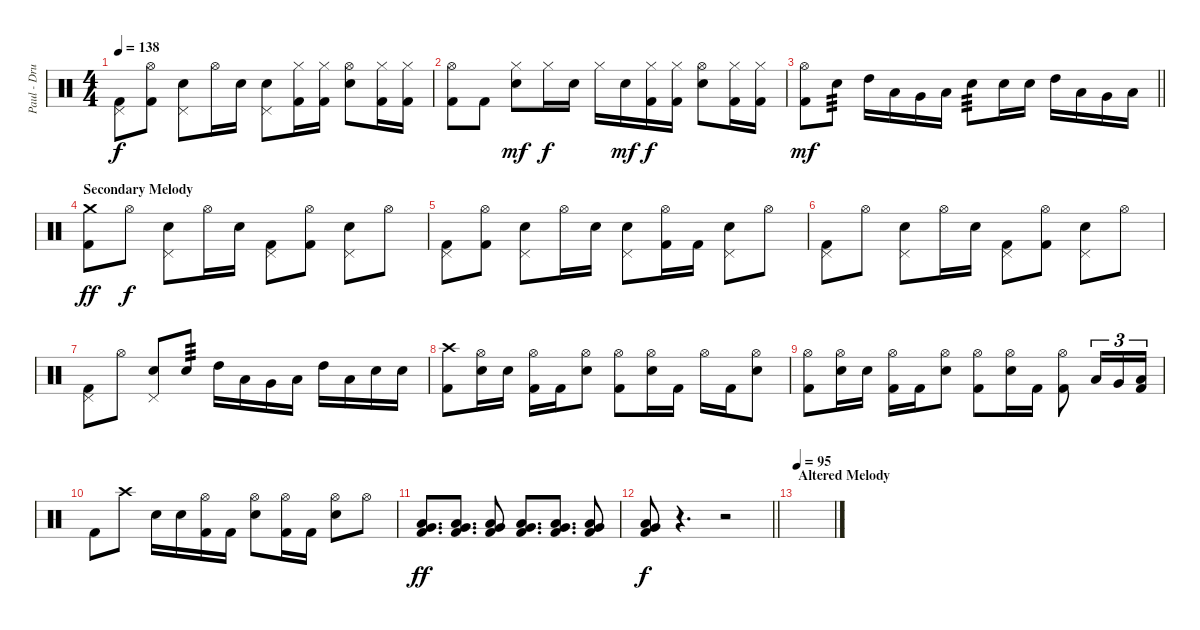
\track ("Paul - Drums" "Paul - Dru") {instrument percussion}
\staff {score}
\articulation defaults
\ts (4 4)
\tempo 138
\clef neutral
\ks c
("Pedal Hi-Hat (hit)" "Kick (hit) 2").8{dy f} ("Hi-Hat (open)" "Kick (hit) 2").8 ("Pedal Hi-Hat (hit)" "Electric Snare (hit)").8 "Hi-Hat (open)".16 "Electric Snare (hit)".16 ("Pedal Hi-Hat (hit)" "Electric Snare (hit)").8 ("Hi-Hat (closed)" "Kick (hit) 2").16 ("Hi-Hat (closed)" "Kick (hit) 2").16 ("Hi-Hat (open)" "Electric Snare (hit)").8 ("Hi-Hat (closed)" "Kick (hit) 2").16 ("Hi-Hat (closed)" "Kick (hit) 2").16 |
("Hi-Hat (open)" "Kick (hit) 2").8 "Kick (hit) 2".8 ("Hi-Hat (closed)" "Electric Snare (hit)").8{dy mf} "Hi-Hat (closed)".16{dy f} "Electric Snare (hit)".16 "Hi-Hat (closed)".16 "Electric Snare (hit)".16{dy mf} ("Hi-Hat (closed)" "Kick (hit) 2").16{dy f} ("Hi-Hat (closed)" "Kick (hit) 2").16 ("Hi-Hat (open)" "Electric Snare (hit)").8 ("Hi-Hat (closed)" "Kick (hit) 2").16 ("Hi-Hat (closed)" "Kick (hit) 2").16 |
\barLineRight lightlight
("Hi-Hat (open)" "Kick (hit) 2").8{dy mf} "Electric Snare (hit)".8{tp 3} "High Tom (hit)".16 "Low Tom (hit)".16 "Very Low Tom (hit)".16 "Low Floor Tom (hit)".16 "Electric Snare (hit)".8{tp 3} "Electric Snare (hit)".16 "Electric Snare (hit)".16 "High Tom (hit)".16 "Low Tom (hit)".16 "Very Low Tom (hit)".16 "Low Floor Tom (hit)".16 |
\section ("" "Secondary Melody")
("Crash medium (hit)" "Kick (hit) 2").8{dy ff} "Hi-Hat (open)".8{dy f} ("Pedal Hi-Hat (hit)" "Electric Snare (hit)").8 "Hi-Hat (open)".16 "Electric Snare (hit)".16 ("Pedal Hi-Hat (hit)" "Kick (hit) 2").8 ("Hi-Hat (open)" "Kick (hit) 2").8 ("Pedal Hi-Hat (hit)" "Electric Snare (hit)").8 "Hi-Hat (open)".8 |
("Pedal Hi-Hat (hit)" "Kick (hit) 2").8 ("Hi-Hat (open)" "Kick (hit) 2").8 ("Pedal Hi-Hat (hit)" "Electric Snare (hit)").8 "Hi-Hat (open)".16 "Electric Snare (hit)".16 ("Pedal Hi-Hat (hit)" "Electric Snare (hit)").8 ("Hi-Hat (open)" "Kick (hit) 2").16 "Kick (hit) 2".16 ("Pedal Hi-Hat (hit)" "Electric Snare (hit)").8 "Hi-Hat (open)".8 |
("Pedal Hi-Hat (hit)" "Kick (hit) 2").8 "Hi-Hat (open)".8 ("Pedal Hi-Hat (hit)" "Electric Snare (hit)").8 "Hi-Hat (open)".16 "Electric Snare (hit)".16 ("Pedal Hi-Hat (hit)" "Kick (hit) 2").8 ("Hi-Hat (open)" "Kick (hit) 2").8 ("Pedal Hi-Hat (hit)" "Electric Snare (hit)").8 "Hi-Hat (open)".8 |
("Pedal Hi-Hat (hit)" "Kick (hit) 2").8 "Hi-Hat (open)".8 ("Pedal Hi-Hat (hit)" "Electric Snare (hit)").8 "Electric Snare (hit)".8{tp 3} "High Tom (hit)".16 "Low Tom (hit)".16 "Very Low Tom (hit)".16 "Low Floor Tom (hit)".16 "High Tom (hit)".16 "Low Tom (hit)".16 "Electric Snare (hit)".16 "Electric Snare (hit)".16 |
("Crash high (hit)" "Kick (hit) 2").8 ("Hi-Hat (open)" "Electric Snare (hit)").16 "Electric Snare (hit)".16 ("Hi-Hat (open)" "Kick (hit) 2").16 "Kick (hit) 2".16 ("Hi-Hat (open)" "Electric Snare (hit)").8 ("Hi-Hat (open)" "Kick (hit) 2").8 ("Hi-Hat (open)" "Electric Snare (hit)").16 "Kick (hit) 2".16 "Hi-Hat (open)".16 "Kick (hit) 2".16 ("Hi-Hat (open)" "Electric Snare (hit)").8 |
("Hi-Hat (open)" "Kick (hit) 2").8 ("Hi-Hat (open)" "Electric Snare (hit)").16 "Electric Snare (hit)".16 ("Hi-Hat (open)" "Kick (hit) 2").16 "Kick (hit) 2".16 ("Hi-Hat (open)" "Electric Snare (hit)").8 ("Hi-Hat (open)" "Kick (hit) 2").8 ("Hi-Hat (open)" "Electric Snare (hit)").16 "Kick (hit) 2".16 ("Hi-Hat (open)" "Kick (hit) 2").8 "Low Tom (hit)".16{tu (3 2)} "Very Low Tom (hit)".16{tu (3 2)} ("Low Floor Tom (hit)" "Kick (hit) 2").16{tu (3 2)} |
"Kick (hit) 2".8 "Crash high (hit)".8 "Electric Snare (hit)".16 "Electric Snare (hit)".16 ("Hi-Hat (open)" "Kick (hit) 2").16 "Kick (hit) 2".16 ("Hi-Hat (open)" "Electric Snare (hit)").8 ("Hi-Hat (open)" "Kick (hit) 2").16 "Kick (hit) 2".16 ("Hi-Hat (open)" "Electric Snare (hit)").8 "Hi-Hat (open)".8 |
("Very Low Tom (hit)" "Low Floor Tom (hit)" "Kick (hit) 2").8{d dy ff} ("Very Low Tom (hit)" "Low Floor Tom (hit)" "Kick (hit) 2").8{d} ("Very Low Tom (hit)" "Low Floor Tom (hit)" "Kick (hit) 2").8 ("Very Low Tom (hit)" "Low Floor Tom (hit)" "Kick (hit) 2").8{d} ("Very Low Tom (hit)" "Low Floor Tom (hit)" "Kick (hit) 2").8{d} ("Very Low Tom (hit)" "Low Floor Tom (hit)" "Kick (hit) 2").8 |
\barLineRight lightlight
("Very Low Tom (hit)" "Low Floor Tom (hit)" "Kick (hit) 2").8{dy f} r.4{d} r.2 |
\section ("" "Altered Melody")
\tempo 95
